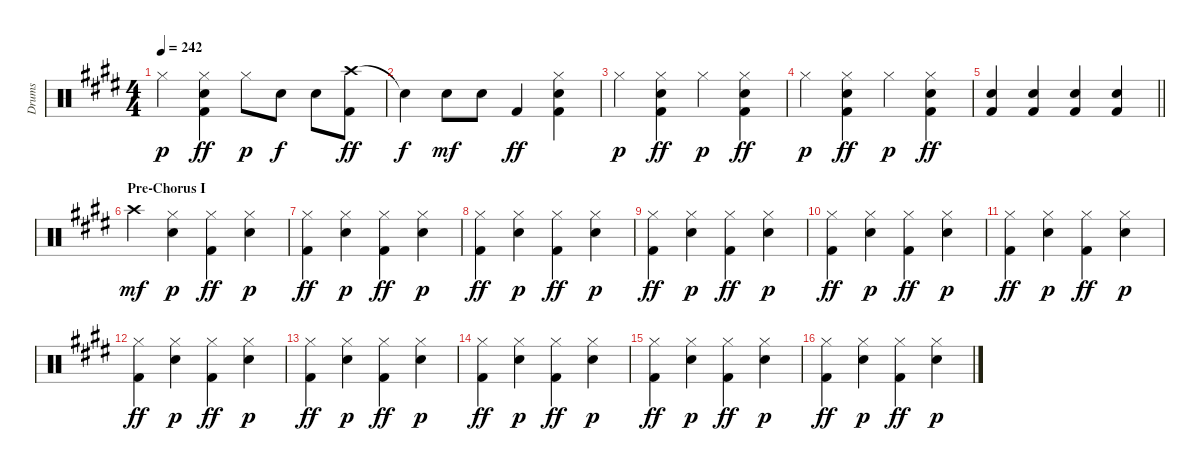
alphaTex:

\track ("Drums" "Drums") {instrument percussion}
\staff {score}
\articulation defaults
\ts (4 4)
\tempo 242
\clef neutral
\ks e "Hi-Hat (closed)".4{dy p}
("Hi-Hat (closed)" "Electric Snare (hit)" "Kick (hit) 2").4{dy ff} "Hi-Hat (closed)".8{dy p} "Electric Snare (hit)".8{dy f} "Electric Snare (hit)".8 ("Crash high (hit)" "Kick (hit) 2").8{dy ff} |
"Snare (hit)"{t}.4{dy f} "Electric Snare (hit)".8{dy mf} "Electric Snare (hit)".8 "Kick (hit) 2".4{dy ff} ("Hi-Hat (closed)" "Electric Snare (hit)" "Kick (hit) 2").4 |
"Hi-Hat (closed)".4{dy p} ("Hi-Hat (closed)" "Electric Snare (hit)" "Kick (hit) 2").4{dy ff} "Hi-Hat (closed)".4{dy p} ("Hi-Hat (closed)" "Electric Snare (hit)" "Kick (hit) 2").4{dy ff} |
"Hi-Hat (closed)".4{dy p} ("Hi-Hat (closed)" "Electric Snare (hit)" "Kick (hit) 2").4{dy ff} "Hi-Hat (closed)".4{dy p} ("Hi-Hat (closed)" "Electric Snare (hit)" "Kick (hit) 2").4{dy ff} |
\barLineRight lightlight
("Electric Snare (hit)" "Kick (hit) 2").4 ("Electric Snare (hit)" "Kick (hit) 2").4 ("Electric Snare (hit)" "Kick (hit) 2").4 ("Electric Snare (hit)" "Kick (hit) 2").4 |
\section ("" "Pre-Chorus I")
"Crash high (hit)".4{dy mf} ("Hi-Hat (closed)" "Electric Snare (hit)").4{dy p} ("Hi-Hat (closed)" "Kick (hit) 2").4{dy ff} ("Hi-Hat (closed)" "Electric Snare (hit)").4{dy p} |
("Hi-Hat (closed)" "Kick (hit) 2").4{dy ff} ("Hi-Hat (closed)" "Electric Snare (hit)").4{dy p} ("Hi-Hat (closed)" "Kick (hit) 2").4{dy ff} ("Hi-Hat (closed)" "Electric Snare (hit)").4{dy p} |
("Hi-Hat (closed)" "Kick (hit) 2").4{dy ff} ("Hi-Hat (closed)" "Electric Snare (hit)").4{dy p} ("Hi-Hat (closed)" "Kick (hit) 2").4{dy ff} ("Hi-Hat (closed)" "Electric Snare (hit)").4{dy p} |
("Hi-Hat (closed)" "Kick (hit) 2").4{dy ff} ("Hi-Hat (closed)" "Electric Snare (hit)").4{dy p} ("Hi-Hat (closed)" "Kick (hit) 2").4{dy ff} ("Hi-Hat (closed)" "Electric Snare (hit)").4{dy p} |
("Hi-Hat (closed)" "Kick (hit) 2").4{dy ff} ("Hi-Hat (closed)" "Electric Snare (hit)").4{dy p} ("Hi-Hat (closed)" "Kick (hit) 2").4{dy ff} ("Hi-Hat (closed)" "Electric Snare (hit)").4{dy p} |
("Hi-Hat (closed)" "Kick (hit) 2").4{dy ff} ("Hi-Hat (closed)" "Electric Snare (hit)").4{dy p} ("Hi-Hat (closed)" "Kick (hit) 2").4{dy ff} ("Hi-Hat (closed)" "Electric Snare (hit)").4{dy p} |
("Hi-Hat (closed)" "Kick (hit) 2").4{dy ff} ("Hi-Hat (closed)" "Electric Snare (hit)").4{dy p} ("Hi-Hat (closed)" "Kick (hit) 2").4{dy ff} ("Hi-Hat (closed)" "Electric Snare (hit)").4{dy p} |
("Hi-Hat (closed)" "Kick (hit) 2").4{dy ff} ("Hi-Hat (closed)" "Electric Snare (hit)").4{dy p} ("Hi-Hat (closed)" "Kick (hit) 2").4{dy ff} ("Hi-Hat (closed)" "Electric Snare (hit)").4{dy p} |
("Hi-Hat (closed)" "Kick (hit) 2").4{dy ff} ("Hi-Hat (closed)" "Electric Snare (hit)").4{dy p} ("Hi-Hat (closed)" "Kick (hit) 2").4{dy ff} ("Hi-Hat (closed)" "Electric Snare (hit)").4{dy p} |
("Hi-Hat (closed)" "Kick (hit) 2").4{dy ff} ("Hi-Hat (closed)" "Electric Snare (hit)").4{dy p} ("Hi-Hat (closed)" "Kick (hit) 2").4{dy ff} ("Hi-Hat (closed)" "Electric Snare (hit)").4{dy p} |
("Hi-Hat (closed)" "Kick (hit) 2").4{dy ff} ("Hi-Hat (closed)" "Electric Snare (hit)").4{dy p} ("Hi-Hat (closed)" "Kick (hit) 2").4{dy ff} ("Hi-Hat (closed)" "Electric Snare (hit)").4{dy p}
